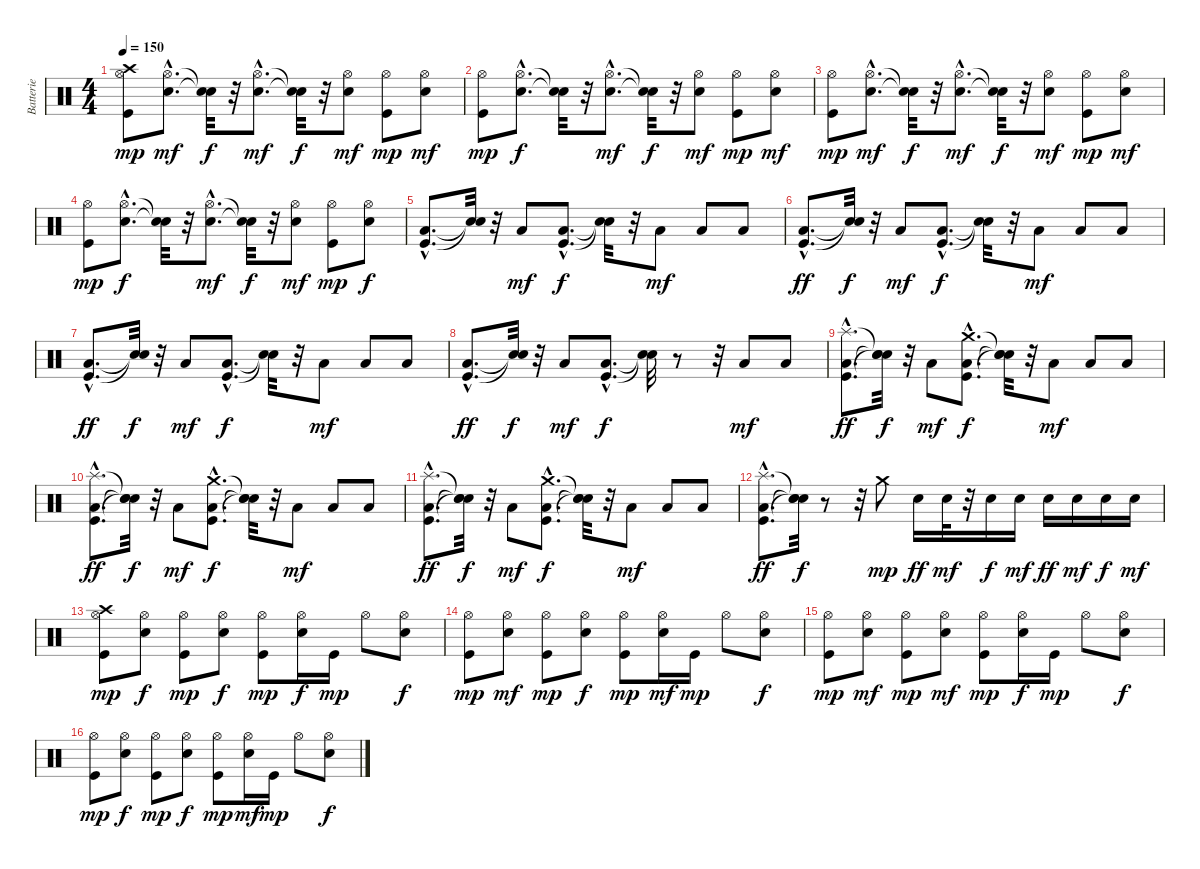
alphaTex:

\track ("Batterie" "Batterie") {instrument percussion}
\staff {score}
\articulation defaults
\ts (4 4)
\tempo 150
\clef neutral
\ks c
("Hi-Hat (open)" "Crash high (hit)" "Kick (hit)").8{dy mp} ("Hi-Hat (open)"{hac} "Snare (hit) 2"{hac}).8{d dy mf} ("Snare (hit)"{t} "Snare (hit)"{t}).32{dy f} r.32 ("Hi-Hat (open)"{hac} "Snare (hit) 2"{hac}).8{d dy mf} ("Snare (hit)"{t} "Snare (hit)"{t}).32{dy f} r.32 ("Hi-Hat (open)" "Snare (hit) 2").8{dy mf} ("Hi-Hat (open)" "Kick (hit)").8{dy mp} ("Hi-Hat (open)" "Snare (hit) 2").8{dy mf} |
("Hi-Hat (open)" "Kick (hit)").8{dy mp} ("Hi-Hat (open)"{hac} "Snare (hit) 2"{hac}).8{d dy f} ("Snare (hit)"{t} "Snare (hit)"{t}).32 r.32 ("Hi-Hat (open)"{hac} "Snare (hit) 2"{hac}).8{d dy mf} ("Snare (hit)"{t} "Snare (hit)"{t}).32{dy f} r.32 ("Hi-Hat (open)" "Snare (hit) 2").8{dy mf} ("Hi-Hat (open)" "Kick (hit)").8{dy mp} ("Hi-Hat (open)" "Snare (hit) 2").8{dy mf} |
("Hi-Hat (open)" "Kick (hit)").8{dy mp} ("Hi-Hat (open)"{hac} "Snare (hit) 2"{hac}).8{d dy mf} ("Snare (hit)"{t} "Snare (hit)"{t}).32{dy f} r.32 ("Hi-Hat (open)"{hac} "Snare (hit) 2"{hac}).8{d dy mf} ("Snare (hit)"{t} "Snare (hit)"{t}).32{dy f} r.32 ("Hi-Hat (open)" "Snare (hit) 2").8{dy mf} ("Hi-Hat (open)" "Kick (hit)").8{dy mp} ("Hi-Hat (open)" "Snare (hit) 2").8{dy mf} |
("Hi-Hat (open)" "Kick (hit)").8{dy mp} ("Hi-Hat (open)"{hac} "Snare (hit) 2"{hac}).8{d dy f} ("Snare (hit)"{t} "Snare (hit)"{t}).32 r.32 ("Hi-Hat (open)"{hac} "Snare (hit) 2"{hac}).8{d dy mf} ("Snare (hit)"{t} "Snare (hit)"{t}).32{dy f} r.32 ("Hi-Hat (open)" "Snare (hit) 2").8{dy mf} ("Hi-Hat (open)" "Kick (hit)").8{dy mp} ("Hi-Hat (open)" "Snare (hit) 2").8{dy f} |
("Kick (hit)"{hac} "Low Tom (hit)"{hac}).8{d} ("Snare (hit)"{t} "Snare (hit)"{t}).32 r.32 "Low Tom (hit)".8{dy mf} ("Kick (hit)"{hac} "Low Tom (hit)"{hac}).8{d dy f} ("Snare (hit)"{t} "Snare (hit)"{t}).32 r.32 "Low Tom (hit)".8{dy mf} "Low Tom (hit)".8 "Low Tom (hit)".8 |
("Kick (hit)"{hac} "Low Tom (hit)"{hac}).8{d dy ff} ("Snare (hit)"{t} "Snare (hit)"{t}).32{dy f} r.32 "Low Tom (hit)".8{dy mf} ("Kick (hit)"{hac} "Low Tom (hit)"{hac}).8{d dy f} ("Snare (hit)"{t} "Snare (hit)"{t}).32 r.32 "Low Tom (hit)".8{dy mf} "Low Tom (hit)".8 "Low Tom (hit)".8 |
("Kick (hit)"{hac} "Low Tom (hit)"{hac}).8{d dy ff} ("Snare (hit)"{t} "Snare (hit)"{t}).32{dy f} r.32 "Low Tom (hit)".8{dy mf} ("Kick (hit)"{hac} "Low Tom (hit)"{hac}).8{d dy f} ("Snare (hit)"{t} "Snare (hit)"{t}).32 r.32 "Low Tom (hit)".8{dy mf} "Low Tom (hit)".8 "Low Tom (hit)".8 |
("Kick (hit)"{hac} "Low Tom (hit)"{hac}).8{d dy ff} ("Snare (hit)"{t} "Snare (hit)"{t}).32{dy f} r.32 "Low Tom (hit)".8{dy mf} ("Kick (hit)"{hac} "Low Tom (hit)"{hac}).8{d dy f} ("Snare (hit)"{t} "Snare (hit)"{t}).32 r.8 r.32 "Low Tom (hit)".8{dy mf} "Low Tom (hit)".8 |
("Kick (hit)"{hac} "Low Tom (hit)"{hac} "Splash (hit)"{hac}).8{d dy ff} ("Snare (hit)"{t} "Snare (hit)"{t} "Snare (hit)"{t}).32{dy f} r.32 "Low Tom (hit)".8{dy mf} ("Kick (hit)"{hac} "Crash medium (hit)"{hac} "Low Tom (hit)"{hac}).8{d dy f} ("Snare (hit)"{t} "Snare (hit)"{t} "Snare (hit)"{t}).32 r.32 "Low Tom (hit)".8{dy mf} "Low Tom (hit)".8 "Low Tom (hit)".8 |
("Kick (hit)"{hac} "Low Tom (hit)"{hac} "Splash (hit)"{hac}).8{d dy ff} ("Snare (hit)"{t} "Snare (hit)"{t} "Snare (hit)"{t}).32{dy f} r.32 "Low Tom (hit)".8{dy mf} ("Kick (hit)"{hac} "Crash medium (hit)"{hac} "Low Tom (hit)"{hac}).8{d dy f} ("Snare (hit)"{t} "Snare (hit)"{t} "Snare (hit)"{t}).32 r.32 "Low Tom (hit)".8{dy mf} "Low Tom (hit)".8 "Low Tom (hit)".8 |
("Kick (hit)"{hac} "Low Tom (hit)"{hac} "Splash (hit)"{hac}).8{d dy ff} ("Snare (hit)"{t} "Snare (hit)"{t} "Snare (hit)"{t}).32{dy f} r.32 "Low Tom (hit)".8{dy mf} ("Kick (hit)"{hac} "Crash medium (hit)"{hac} "Low Tom (hit)"{hac}).8{d dy f} ("Snare (hit)"{t} "Snare (hit)"{t} "Snare (hit)"{t}).32 r.32 "Low Tom (hit)".8{dy mf} "Low Tom (hit)".8 "Low Tom (hit)".8 |
("Kick (hit)"{hac} "Low Tom (hit)"{hac} "Splash (hit)"{hac}).8{d dy ff} ("Snare (hit)"{t} "Snare (hit)"{t} "Snare (hit)"{t}).32{dy f} r.8 r.32 "Crash medium (hit)".8{dy mp} "Snare (hit) 2".16{dy ff} "Snare (hit) 2".32{dy mf} r.32 "Snare (hit) 2".16{dy f} "Snare (hit) 2".16{dy mf} "Snare (hit) 2".16{dy ff} "Snare (hit) 2".16{dy mf} "Snare (hit) 2".16{dy f} "Snare (hit) 2".16{dy mf} |
("Hi-Hat (open)" "Crash high (hit)" "Kick (hit)").8{dy mp} ("Hi-Hat (open)" "Snare (hit) 2").8{dy f} ("Hi-Hat (open)" "Kick (hit)").8{dy mp} ("Hi-Hat (open)" "Snare (hit) 2").8{dy f} ("Hi-Hat (open)" "Kick (hit)").8{dy mp} ("Hi-Hat (open)" "Snare (hit) 2").16{dy f} "Kick (hit)".16{dy mp} "Hi-Hat (open)".8 ("Hi-Hat (open)" "Snare (hit) 2").8{dy f} |
("Hi-Hat (open)" "Kick (hit)").8{dy mp} ("Hi-Hat (open)" "Snare (hit) 2").8{dy mf} ("Hi-Hat (open)" "Kick (hit)").8{dy mp} ("Hi-Hat (open)" "Snare (hit) 2").8{dy f} ("Hi-Hat (open)" "Kick (hit)").8{dy mp} ("Hi-Hat (open)" "Snare (hit) 2").16{dy mf} "Kick (hit)".16{dy mp} "Hi-Hat (open)".8 ("Hi-Hat (open)" "Snare (hit) 2").8{dy f} |
("Hi-Hat (open)" "Kick (hit)").8{dy mp} ("Hi-Hat (open)" "Snare (hit) 2").8{dy mf} ("Hi-Hat (open)" "Kick (hit)").8{dy mp} ("Hi-Hat (open)" "Snare (hit) 2").8{dy mf} ("Hi-Hat (open)" "Kick (hit)").8{dy mp} ("Hi-Hat (open)" "Snare (hit) 2").16{dy f} "Kick (hit)".16{dy mp} "Hi-Hat (open)".8 ("Hi-Hat (open)" "Snare (hit) 2").8{dy f} |
("Hi-Hat (open)" "Kick (hit)").8{dy mp} ("Hi-Hat (open)" "Snare (hit) 2").8{dy f} ("Hi-Hat (open)" "Kick (hit)").8{dy mp} ("Hi-Hat (open)" "Snare (hit) 2").8{dy f} ("Hi-Hat (open)" "Kick (hit)").8{dy mp} ("Hi-Hat (open)" "Snare (hit) 2").16{dy mf} "Kick (hit)".16{dy mp} "Hi-Hat (open)".8 ("Hi-Hat (open)" "Snare (hit) 2").8{dy f}
